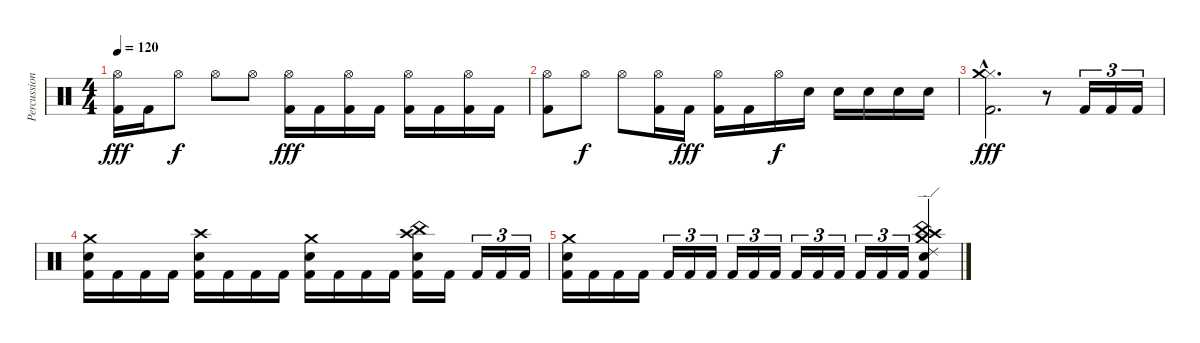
\track ("Percussion" "Percussion") {instrument percussion}
\staff {score}
\articulation defaults
\ts (4 4)
\tempo 120
\clef neutral
\ks c
("Hi-Hat (open)" "Kick (hit) 2").16{dy fff} "Kick (hit) 2".16 "Hi-Hat (open)".8{dy f} "Hi-Hat (open)".8 "Hi-Hat (open)".8 ("Hi-Hat (open)" "Kick (hit) 2").16{dy fff} "Kick (hit) 2".16 ("Hi-Hat (open)" "Kick (hit) 2").16 "Kick (hit) 2".16 ("Hi-Hat (open)" "Kick (hit) 2").16 "Kick (hit) 2".16 ("Hi-Hat (open)" "Kick (hit) 2").16 "Kick (hit) 2".16 |
("Hi-Hat (open)" "Kick (hit) 2").8 "Hi-Hat (open)".8{dy f} "Hi-Hat (open)".8 ("Hi-Hat (open)" "Kick (hit) 2").16 "Kick (hit) 2".16{dy fff} ("Hi-Hat (open)" "Kick (hit) 2").16 "Kick (hit) 2".16 "Hi-Hat (open)".16{dy f} "Snare (hit) 2".16 "Snare (hit) 2".16 "Snare (hit) 2".16 "Snare (hit) 2".16 "Snare (hit) 2".16 |
("Hi-Hat (closed)"{hac} "Crash medium (hit)"{hac} "Kick (hit) 2"{hac}).2{d dy fff} r.8 "Kick (hit) 2".16{tu (3 2)} "Kick (hit) 2".16{tu (3 2)} "Kick (hit) 2".16{tu (3 2)} |
("Crash medium (hit)" "Snare (hit) 2" "Kick (hit) 2").16 "Kick (hit) 2".16 "Kick (hit) 2".16 "Kick (hit) 2".16 ("Crash high (hit)" "Snare (hit) 2" "Kick (hit) 2").16 "Kick (hit) 2".16 "Kick (hit) 2".16 "Kick (hit) 2".16 ("Crash medium (hit)" "Snare (hit) 2" "Kick (hit) 2").16 "Kick (hit) 2".16 "Kick (hit) 2".16 "Kick (hit) 2".16 ("Crash high (hit)" "China (hit)" "Snare (hit) 2" "Kick (hit) 2").16 "Kick (hit) 2".16 "Kick (hit) 2".16{tu (3 2)} "Kick (hit) 2".16{tu (3 2)} "Kick (hit) 2".16{tu (3 2)} |
("Crash medium (hit)" "Snare (hit) 2" "Kick (hit) 2").16 "Kick (hit) 2".16 "Kick (hit) 2".16 "Kick (hit) 2".16 "Kick (hit) 2".16{tu (3 2)} "Kick (hit) 2".16{tu (3 2)} "Kick (hit) 2".16{tu (3 2)} "Kick (hit) 2".16{tu (3 2)} "Kick (hit) 2".16{tu (3 2)} "Kick (hit) 2".16{tu (3 2)} "Kick (hit) 2".16{tu (3 2)} "Kick (hit) 2".16{tu (3 2)} "Kick (hit) 2".16{tu (3 2)} "Kick (hit) 2".16{tu (3 2)} "Kick (hit) 2".16{tu (3 2)} "Kick (hit) 2".16{tu (3 2)} ("Crash medium (hit)" "Ride (edge) 2" "China (hit)" "Crash high (hit)" "Snare (hit) 2" "Kick (hit) 2").4
